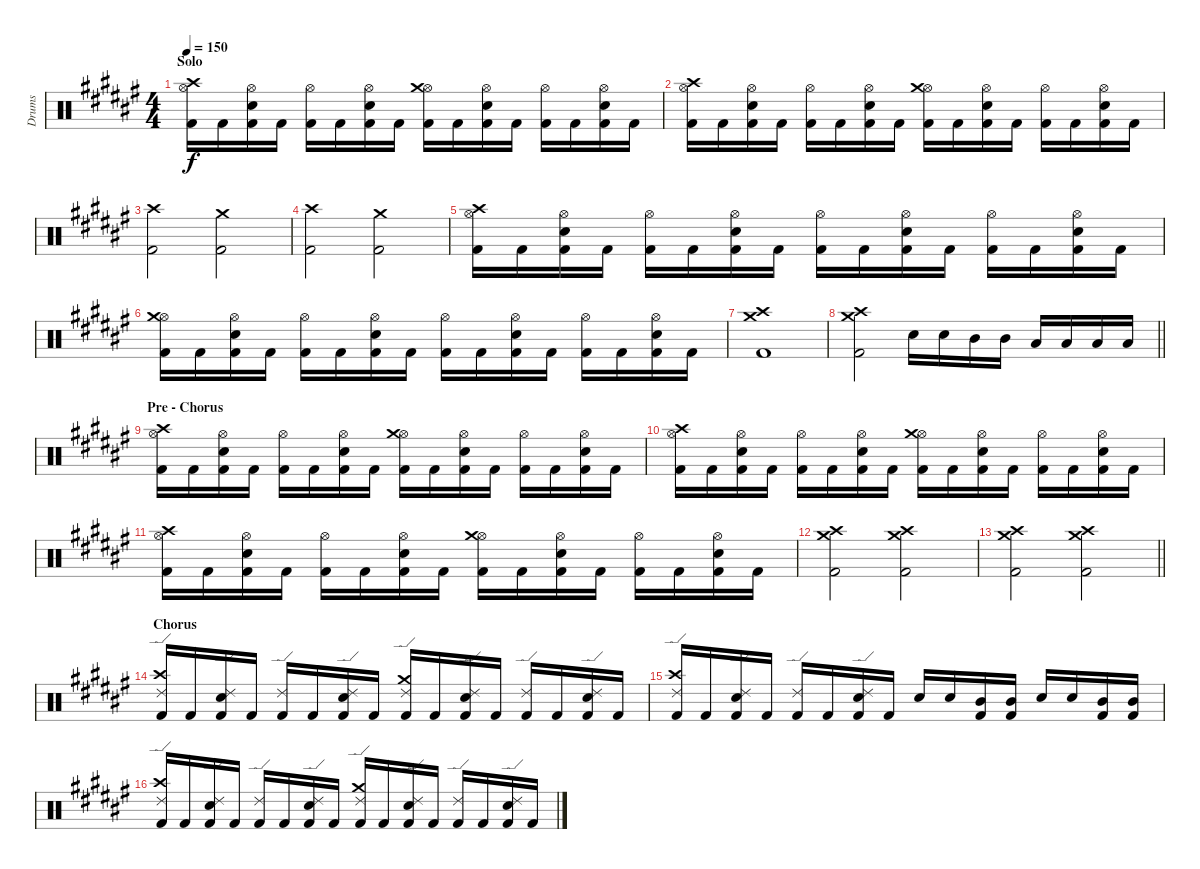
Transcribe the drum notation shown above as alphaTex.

\track ("Drums" "Drums") {instrument percussion}
\staff {score}
\articulation defaults
\ts (4 4)
\section ("" "Solo")
\tempo 150
\clef neutral
\ks d#minor
("Kick (hit) 2" "Hi-Hat (open)" "Crash high (hit)").16{dy f} "Kick (hit) 2".16 ("Kick (hit) 2" "Electric Snare (hit)" "Hi-Hat (open)").16 "Kick (hit) 2".16 ("Kick (hit) 2" "Hi-Hat (open)").16 "Kick (hit) 2".16 ("Kick (hit) 2" "Electric Snare (hit)" "Hi-Hat (open)").16 "Kick (hit) 2".16 ("Kick (hit) 2" "Hi-Hat (open)" "Crash medium (hit)").16 "Kick (hit) 2".16 ("Kick (hit) 2" "Electric Snare (hit)" "Hi-Hat (open)").16 "Kick (hit) 2".16 ("Kick (hit) 2" "Hi-Hat (open)").16 "Kick (hit) 2".16 ("Kick (hit) 2" "Electric Snare (hit)" "Hi-Hat (open)").16 "Kick (hit) 2".16 |
("Kick (hit) 2" "Hi-Hat (open)" "Crash high (hit)").16 "Kick (hit) 2".16 ("Kick (hit) 2" "Electric Snare (hit)" "Hi-Hat (open)").16 "Kick (hit) 2".16 ("Kick (hit) 2" "Hi-Hat (open)").16 "Kick (hit) 2".16 ("Kick (hit) 2" "Electric Snare (hit)" "Hi-Hat (open)").16 "Kick (hit) 2".16 ("Kick (hit) 2" "Hi-Hat (open)" "Crash medium (hit)").16 "Kick (hit) 2".16 ("Kick (hit) 2" "Electric Snare (hit)" "Hi-Hat (open)").16 "Kick (hit) 2".16 ("Kick (hit) 2" "Hi-Hat (open)").16 "Kick (hit) 2".16 ("Kick (hit) 2" "Electric Snare (hit)" "Hi-Hat (open)").16 "Kick (hit) 2".16 |
("Kick (hit) 2" "Crash high (hit)").2 ("Kick (hit) 2" "Crash medium (hit)").2 |
("Kick (hit) 2" "Crash high (hit)").2 ("Kick (hit) 2" "Crash medium (hit)").2 |
("Kick (hit) 2" "Hi-Hat (open)" "Crash high (hit)").16 "Kick (hit) 2".16 ("Kick (hit) 2" "Electric Snare (hit)" "Hi-Hat (open)").16 "Kick (hit) 2".16 ("Kick (hit) 2" "Hi-Hat (open)").16 "Kick (hit) 2".16 ("Kick (hit) 2" "Electric Snare (hit)" "Hi-Hat (open)").16 "Kick (hit) 2".16 ("Kick (hit) 2" "Hi-Hat (open)").16 "Kick (hit) 2".16 ("Kick (hit) 2" "Electric Snare (hit)" "Hi-Hat (open)").16 "Kick (hit) 2".16 ("Kick (hit) 2" "Hi-Hat (open)").16 "Kick (hit) 2".16 ("Kick (hit) 2" "Electric Snare (hit)" "Hi-Hat (open)").16 "Kick (hit) 2".16 |
("Kick (hit) 2" "Hi-Hat (open)" "Crash medium (hit)").16 "Kick (hit) 2".16 ("Kick (hit) 2" "Electric Snare (hit)" "Hi-Hat (open)").16 "Kick (hit) 2".16 ("Kick (hit) 2" "Hi-Hat (open)").16 "Kick (hit) 2".16 ("Kick (hit) 2" "Electric Snare (hit)" "Hi-Hat (open)").16 "Kick (hit) 2".16 ("Kick (hit) 2" "Hi-Hat (open)").16 "Kick (hit) 2".16 ("Kick (hit) 2" "Electric Snare (hit)" "Hi-Hat (open)").16 "Kick (hit) 2".16 ("Kick (hit) 2" "Hi-Hat (open)").16 "Kick (hit) 2".16 ("Kick (hit) 2" "Electric Snare (hit)" "Hi-Hat (open)").16 "Kick (hit) 2".16 |
("Kick (hit) 2" "Crash medium (hit)" "Crash high (hit)").1 |
\barLineRight lightlight
("Kick (hit) 2" "Crash medium (hit)" "Crash high (hit)").2 "Electric Snare (hit)".16 "Electric Snare (hit)".16 "Mid Tom (hit)".16 "Mid Tom (hit)".16 "Low Tom (hit)".16 "Low Tom (hit)".16 "Low Floor Tom (hit)".16 "Low Floor Tom (hit)".16 |
\section ("" "Pre - Chorus")
("Kick (hit) 2" "Hi-Hat (open)" "Crash high (hit)").16 "Kick (hit) 2".16 ("Kick (hit) 2" "Electric Snare (hit)" "Hi-Hat (open)").16 "Kick (hit) 2".16 ("Kick (hit) 2" "Hi-Hat (open)").16 "Kick (hit) 2".16 ("Kick (hit) 2" "Electric Snare (hit)" "Hi-Hat (open)").16 "Kick (hit) 2".16 ("Kick (hit) 2" "Hi-Hat (open)" "Crash medium (hit)").16 "Kick (hit) 2".16 ("Kick (hit) 2" "Electric Snare (hit)" "Hi-Hat (open)").16 "Kick (hit) 2".16 ("Kick (hit) 2" "Hi-Hat (open)").16 "Kick (hit) 2".16 ("Kick (hit) 2" "Electric Snare (hit)" "Hi-Hat (open)").16 "Kick (hit) 2".16 |
("Kick (hit) 2" "Hi-Hat (open)" "Crash high (hit)").16 "Kick (hit) 2".16 ("Kick (hit) 2" "Electric Snare (hit)" "Hi-Hat (open)").16 "Kick (hit) 2".16 ("Kick (hit) 2" "Hi-Hat (open)").16 "Kick (hit) 2".16 ("Kick (hit) 2" "Electric Snare (hit)" "Hi-Hat (open)").16 "Kick (hit) 2".16 ("Kick (hit) 2" "Hi-Hat (open)" "Crash medium (hit)").16 "Kick (hit) 2".16 ("Kick (hit) 2" "Electric Snare (hit)" "Hi-Hat (open)").16 "Kick (hit) 2".16 ("Kick (hit) 2" "Hi-Hat (open)").16 "Kick (hit) 2".16 ("Kick (hit) 2" "Electric Snare (hit)" "Hi-Hat (open)").16 "Kick (hit) 2".16 |
("Kick (hit) 2" "Hi-Hat (open)" "Crash high (hit)").16 "Kick (hit) 2".16 ("Kick (hit) 2" "Electric Snare (hit)" "Hi-Hat (open)").16 "Kick (hit) 2".16 ("Kick (hit) 2" "Hi-Hat (open)").16 "Kick (hit) 2".16 ("Kick (hit) 2" "Electric Snare (hit)" "Hi-Hat (open)").16 "Kick (hit) 2".16 ("Kick (hit) 2" "Hi-Hat (open)" "Crash medium (hit)").16 "Kick (hit) 2".16 ("Kick (hit) 2" "Electric Snare (hit)" "Hi-Hat (open)").16 "Kick (hit) 2".16 ("Kick (hit) 2" "Hi-Hat (open)").16 "Kick (hit) 2".16 ("Kick (hit) 2" "Electric Snare (hit)" "Hi-Hat (open)").16 "Kick (hit) 2".16 |
("Kick (hit) 2" "Crash medium (hit)" "Crash high (hit)").2 ("Kick (hit) 2" "Crash medium (hit)" "Crash high (hit)").2 |
\barLineRight lightlight
("Kick (hit) 2" "Crash medium (hit)" "Crash high (hit)").2 ("Kick (hit) 2" "Crash medium (hit)" "Crash high (hit)").2 |
\section ("" "Chorus")
("Kick (hit) 2" "Ride (edge) 2" "Crash high (hit)").16 "Kick (hit) 2".16 ("Kick (hit) 2" "Electric Snare (hit)" "Ride (edge) 2").16 "Kick (hit) 2".16 ("Kick (hit) 2" "Ride (edge) 2").16 "Kick (hit) 2".16 ("Kick (hit) 2" "Electric Snare (hit)" "Ride (edge) 2").16 "Kick (hit) 2".16 ("Kick (hit) 2" "Ride (edge) 2" "Crash medium (hit)").16 "Kick (hit) 2".16 ("Kick (hit) 2" "Electric Snare (hit)" "Ride (edge) 2").16 "Kick (hit) 2".16 ("Kick (hit) 2" "Ride (edge) 2").16 "Kick (hit) 2".16 ("Kick (hit) 2" "Electric Snare (hit)" "Ride (edge) 2").16 "Kick (hit) 2".16 |
("Kick (hit) 2" "Ride (edge) 2" "Crash high (hit)").16 "Kick (hit) 2".16 ("Kick (hit) 2" "Electric Snare (hit)" "Ride (edge) 2").16 "Kick (hit) 2".16 ("Kick (hit) 2" "Ride (edge) 2").16 "Kick (hit) 2".16 ("Kick (hit) 2" "Electric Snare (hit)" "Ride (edge) 2").16 "Kick (hit) 2".16 "Electric Snare (hit)".16 "Electric Snare (hit)".16 ("Kick (hit) 2" "Mid Tom (hit)").16 ("Kick (hit) 2" "Mid Tom (hit)").16 "Electric Snare (hit)".16 "Electric Snare (hit)".16 ("Kick (hit) 2" "Mid Tom (hit)").16 ("Kick (hit) 2" "Mid Tom (hit)").16 |
("Kick (hit) 2" "Ride (edge) 2" "Crash high (hit)").16 "Kick (hit) 2".16 ("Kick (hit) 2" "Electric Snare (hit)" "Ride (edge) 2").16 "Kick (hit) 2".16 ("Kick (hit) 2" "Ride (edge) 2").16 "Kick (hit) 2".16 ("Kick (hit) 2" "Electric Snare (hit)" "Ride (edge) 2").16 "Kick (hit) 2".16 ("Kick (hit) 2" "Ride (edge) 2" "Crash medium (hit)").16 "Kick (hit) 2".16 ("Kick (hit) 2" "Electric Snare (hit)" "Ride (edge) 2").16 "Kick (hit) 2".16 ("Kick (hit) 2" "Ride (edge) 2").16 "Kick (hit) 2".16 ("Kick (hit) 2" "Electric Snare (hit)" "Ride (edge) 2").16 "Kick (hit) 2".16
